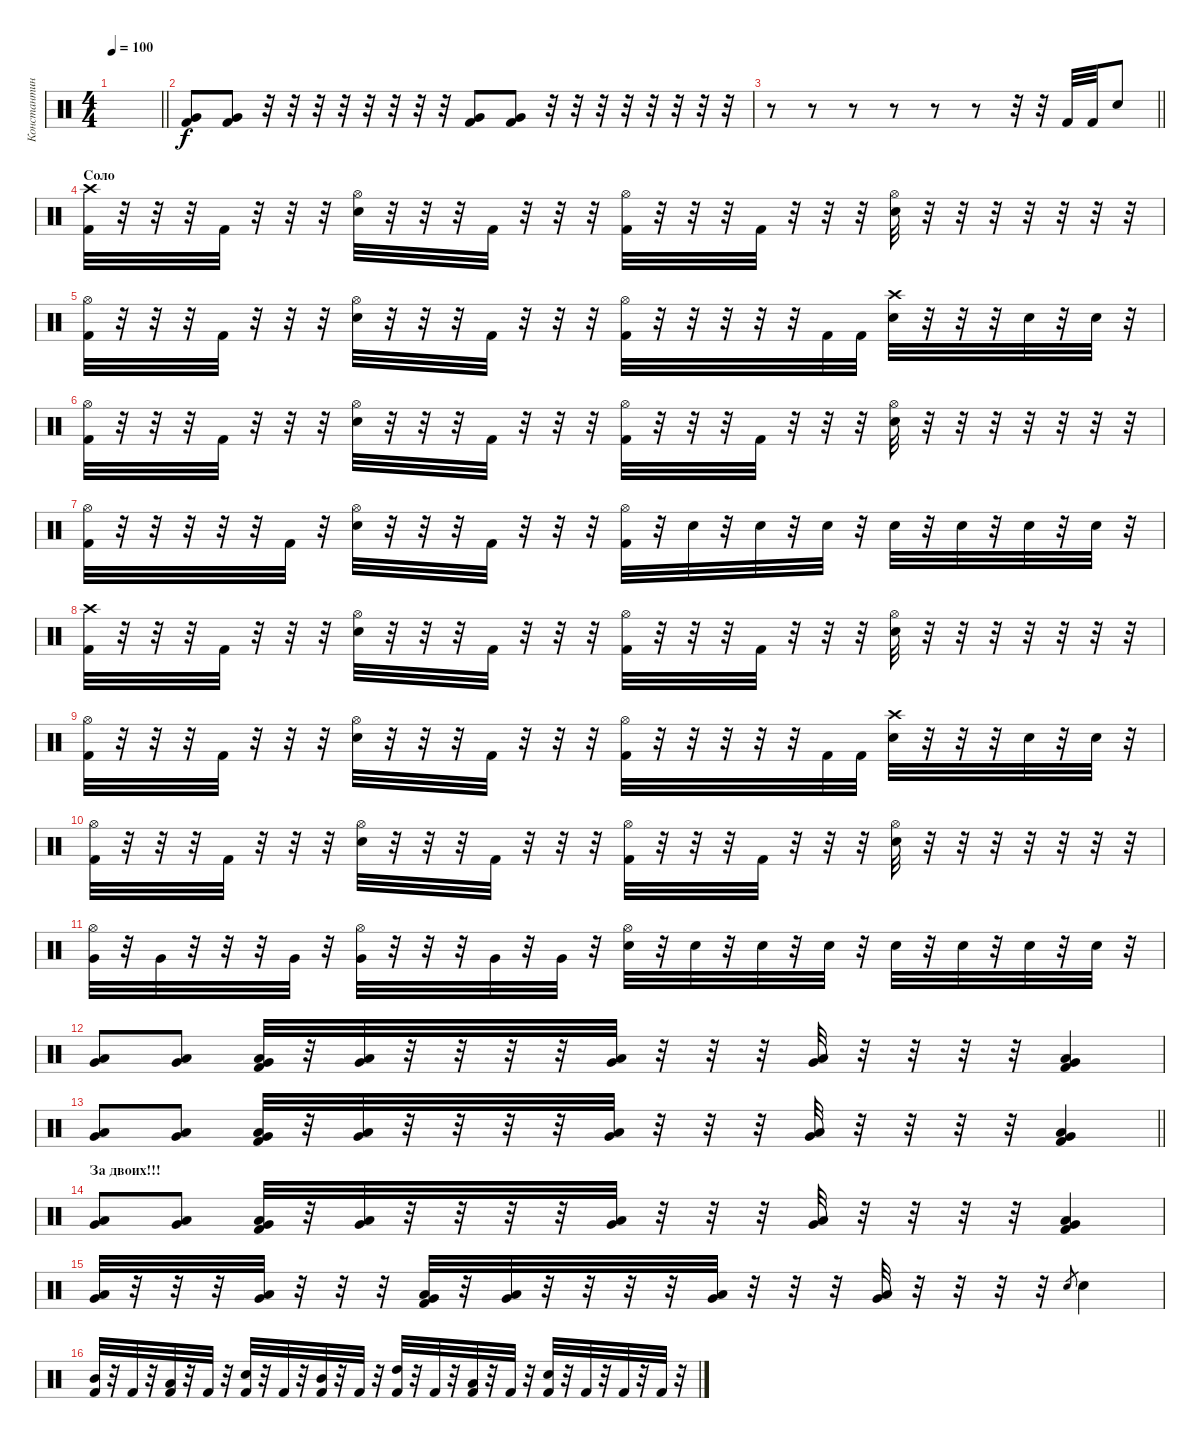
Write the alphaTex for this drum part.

\track ("Константин \"Салян\" Сальников" "Константин") {instrument percussion}
\staff {score}
\articulation defaults
\ts (4 4)
\tempo 100
\clef neutral
\barLineRight lightlight
\ks c
|
("Very Low Tom (hit)" "Kick (hit) 2").8 ("Very Low Tom (hit)" "Kick (hit) 2").8 r.32 r.32 r.32 r.32 r.32 r.32 r.32 r.32 ("Very Low Tom (hit)" "Kick (hit) 2").8 ("Very Low Tom (hit)" "Kick (hit) 2").8 r.32 r.32 r.32 r.32 r.32 r.32 r.32 r.32 |
\barLineRight lightlight
r.8 r.8 r.8 r.8 r.8 r.8 r.32 r.32 "Kick (hit) 2".32 "Kick (hit) 2".32 "Electric Snare (hit)".8 |
\section ("" "Соло")
("Crash high (hit)" "Kick (hit) 2").32 r.32 r.32 r.32 "Kick (hit) 2".32 r.32 r.32 r.32 ("Hi-Hat (open)" "Electric Snare (hit)").32 r.32 r.32 r.32 "Kick (hit) 2".32 r.32 r.32 r.32 ("Hi-Hat (open)" "Kick (hit) 2").32 r.32 r.32 r.32 "Kick (hit) 2".32 r.32 r.32 r.32 ("Hi-Hat (open)" "Electric Snare (hit)").32 r.32 r.32 r.32 r.32 r.32 r.32 r.32 |
("Hi-Hat (open)" "Kick (hit) 2").32 r.32 r.32 r.32 "Kick (hit) 2".32 r.32 r.32 r.32 ("Hi-Hat (open)" "Electric Snare (hit)").32 r.32 r.32 r.32 "Kick (hit) 2".32 r.32 r.32 r.32 ("Hi-Hat (open)" "Kick (hit) 2").32 r.32 r.32 r.32 r.32 r.32 "Kick (hit) 2".32 "Kick (hit) 2".32 ("Crash high (hit)" "Electric Snare (hit)").32 r.32 r.32 r.32 "Electric Snare (hit)".32 r.32 "Electric Snare (hit)".32 r.32 |
("Hi-Hat (open)" "Kick (hit) 2").32 r.32 r.32 r.32 "Kick (hit) 2".32 r.32 r.32 r.32 ("Hi-Hat (open)" "Electric Snare (hit)").32 r.32 r.32 r.32 "Kick (hit) 2".32 r.32 r.32 r.32 ("Hi-Hat (open)" "Kick (hit) 2").32 r.32 r.32 r.32 "Kick (hit) 2".32 r.32 r.32 r.32 ("Hi-Hat (open)" "Electric Snare (hit)").32 r.32 r.32 r.32 r.32 r.32 r.32 r.32 |
("Hi-Hat (open)" "Kick (hit) 2").32 r.32 r.32 r.32 r.32 r.32 "Kick (hit) 2".32 r.32 ("Hi-Hat (open)" "Electric Snare (hit)").32 r.32 r.32 r.32 "Kick (hit) 2".32 r.32 r.32 r.32 ("Hi-Hat (open)" "Kick (hit) 2").32 r.32 "Electric Snare (hit)".32 r.32 "Electric Snare (hit)".32 r.32 "Electric Snare (hit)".32 r.32 "Electric Snare (hit)".32 r.32 "Electric Snare (hit)".32 r.32 "Electric Snare (hit)".32 r.32 "Electric Snare (hit)".32 r.32 |
("Crash high (hit)" "Kick (hit) 2").32 r.32 r.32 r.32 "Kick (hit) 2".32 r.32 r.32 r.32 ("Hi-Hat (open)" "Electric Snare (hit)").32 r.32 r.32 r.32 "Kick (hit) 2".32 r.32 r.32 r.32 ("Hi-Hat (open)" "Kick (hit) 2").32 r.32 r.32 r.32 "Kick (hit) 2".32 r.32 r.32 r.32 ("Hi-Hat (open)" "Electric Snare (hit)").32 r.32 r.32 r.32 r.32 r.32 r.32 r.32 |
("Hi-Hat (open)" "Kick (hit) 2").32 r.32 r.32 r.32 "Kick (hit) 2".32 r.32 r.32 r.32 ("Hi-Hat (open)" "Electric Snare (hit)").32 r.32 r.32 r.32 "Kick (hit) 2".32 r.32 r.32 r.32 ("Hi-Hat (open)" "Kick (hit) 2").32 r.32 r.32 r.32 r.32 r.32 "Kick (hit) 2".32 "Kick (hit) 2".32 ("Crash high (hit)" "Electric Snare (hit)").32 r.32 r.32 r.32 "Electric Snare (hit)".32 r.32 "Electric Snare (hit)".32 r.32 |
("Hi-Hat (open)" "Kick (hit) 2").32 r.32 r.32 r.32 "Kick (hit) 2".32 r.32 r.32 r.32 ("Hi-Hat (open)" "Electric Snare (hit)").32 r.32 r.32 r.32 "Kick (hit) 2".32 r.32 r.32 r.32 ("Hi-Hat (open)" "Kick (hit) 2").32 r.32 r.32 r.32 "Kick (hit) 2".32 r.32 r.32 r.32 ("Hi-Hat (open)" "Electric Snare (hit)").32 r.32 r.32 r.32 r.32 r.32 r.32 r.32 |
("Hi-Hat (open)" "Very Low Tom (hit)").32 r.32 "Very Low Tom (hit)".32 r.32 r.32 r.32 "Very Low Tom (hit)".32 r.32 ("Hi-Hat (open)" "Very Low Tom (hit)").32 r.32 r.32 r.32 "Very Low Tom (hit)".32 r.32 "Very Low Tom (hit)".32 r.32 ("Hi-Hat (open)" "Electric Snare (hit)").32 r.32 "Electric Snare (hit)".32 r.32 "Electric Snare (hit)".32 r.32 "Electric Snare (hit)".32 r.32 "Electric Snare (hit)".32 r.32 "Electric Snare (hit)".32 r.32 "Electric Snare (hit)".32 r.32 "Electric Snare (hit)".32 r.32 |
("Very Low Tom (hit)" "Low Tom (hit)").8 ("Very Low Tom (hit)" "Low Tom (hit)").8 ("Kick (hit) 2" "Very Low Tom (hit)" "Low Tom (hit)").32 r.32 ("Very Low Tom (hit)" "Low Tom (hit)").32 r.32 r.32 r.32 r.32 ("Very Low Tom (hit)" "Low Tom (hit)").32 r.32 r.32 r.32 ("Very Low Tom (hit)" "Low Tom (hit)").32 r.32 r.32 r.32 r.32 ("Kick (hit) 2" "Very Low Tom (hit)" "Low Tom (hit)").4 |
\barLineRight lightlight
("Very Low Tom (hit)" "Low Tom (hit)").8 ("Very Low Tom (hit)" "Low Tom (hit)").8 ("Kick (hit) 2" "Very Low Tom (hit)" "Low Tom (hit)").32 r.32 ("Very Low Tom (hit)" "Low Tom (hit)").32 r.32 r.32 r.32 r.32 ("Very Low Tom (hit)" "Low Tom (hit)").32 r.32 r.32 r.32 ("Very Low Tom (hit)" "Low Tom (hit)").32 r.32 r.32 r.32 r.32 ("Kick (hit) 2" "Very Low Tom (hit)" "Low Tom (hit)").4 |
\section ("" "За двоих!!!")
("Very Low Tom (hit)" "Low Tom (hit)").8 ("Very Low Tom (hit)" "Low Tom (hit)").8 ("Kick (hit) 2" "Very Low Tom (hit)" "Low Tom (hit)").32 r.32 ("Very Low Tom (hit)" "Low Tom (hit)").32 r.32 r.32 r.32 r.32 ("Very Low Tom (hit)" "Low Tom (hit)").32 r.32 r.32 r.32 ("Very Low Tom (hit)" "Low Tom (hit)").32 r.32 r.32 r.32 r.32 ("Kick (hit) 2" "Very Low Tom (hit)" "Low Tom (hit)").4 |
("Very Low Tom (hit)" "Low Tom (hit)").32 r.32 r.32 r.32 ("Very Low Tom (hit)" "Low Tom (hit)").32 r.32 r.32 r.32 ("Kick (hit) 2" "Very Low Tom (hit)" "Low Tom (hit)").32 r.32 ("Very Low Tom (hit)" "Low Tom (hit)").32 r.32 r.32 r.32 r.32 ("Very Low Tom (hit)" "Low Tom (hit)").32 r.32 r.32 r.32 ("Very Low Tom (hit)" "Low Tom (hit)").32 r.32 r.32 r.32 r.32 "Electric Snare (hit)".8{gr} "Electric Snare (hit)".4 |
("Mid Tom (hit)" "Kick (hit) 2").32 r.32 "Kick (hit) 2".32 r.32 ("Low Tom (hit)" "Kick (hit) 2").32 r.32 "Kick (hit) 2".32 r.32 ("Electric Snare (hit)" "Kick (hit) 2").32 r.32 "Kick (hit) 2".32 r.32 ("Mid Tom (hit)" "Kick (hit) 2").32 r.32 "Kick (hit) 2".32 r.32 ("High Tom (hit)" "Kick (hit) 2").32 r.32 "Kick (hit) 2".32 r.32 ("Low Tom (hit)" "Kick (hit) 2").32 r.32 "Kick (hit) 2".32 r.32 ("Electric Snare (hit)" "Kick (hit) 2").32 r.32 "Kick (hit) 2".32 r.32 "Kick (hit) 2".32 r.32 "Kick (hit) 2".32 r.32
